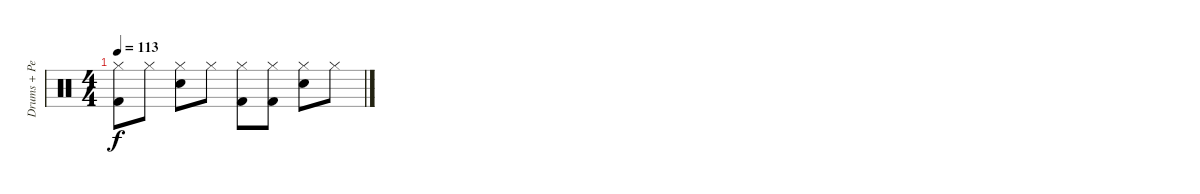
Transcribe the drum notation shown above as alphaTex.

\track ("Drums + Percussion" "Drums + Pe") {instrument percussion}
\staff {score}
\articulation defaults
\ts (4 4)
\tempo 113
\clef neutral
\ks c
("Hi-Hat (closed)" "Kick (hit) 2").8{dy f} "Hi-Hat (closed)".8 ("Hi-Hat (closed)" "Snare (hit) 2").8 "Hi-Hat (closed)".8 ("Hi-Hat (closed)" "Kick (hit) 2").8 ("Hi-Hat (closed)" "Kick (hit) 2").8 ("Hi-Hat (closed)" "Snare (hit) 2").8 "Hi-Hat (closed)".8
